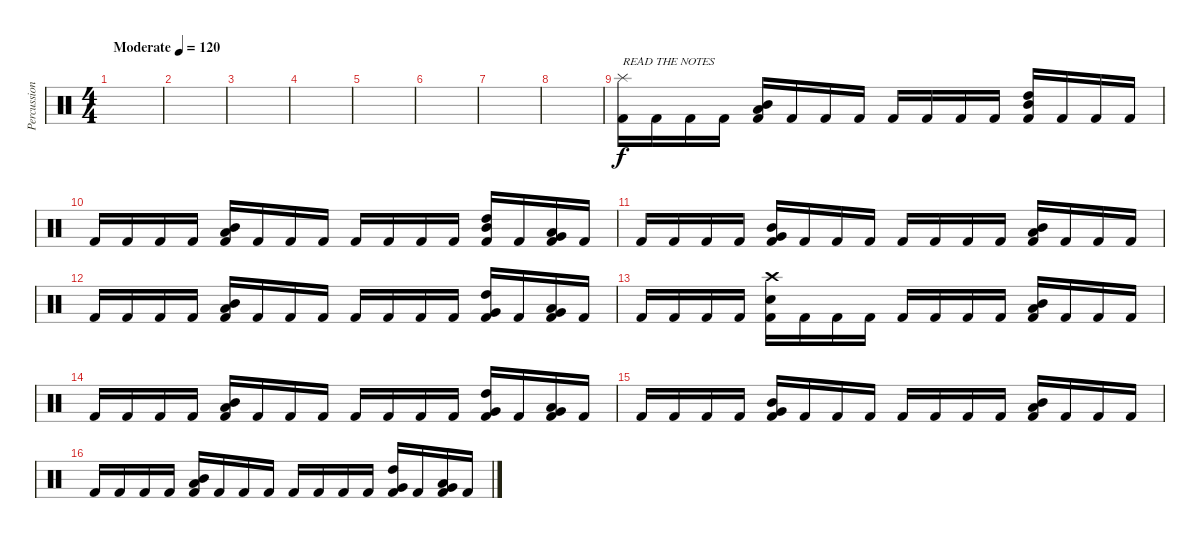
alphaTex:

\track ("Percussion" "Percussion") {instrument percussion}
\staff {score}
\articulation defaults
\ts (4 4)
\tempo (120 "Moderate")
\clef neutral
\ks c
|
|
|
|
|
|
|
|
("Kick (hit) 2" "Splash (hit)").16{txt "READ THE NOTES"} "Kick (hit) 2".16 "Kick (hit) 2".16 "Kick (hit) 2".16 ("Kick (hit) 2" "Low Tom (hit)" "Mid Tom (hit)").16 "Kick (hit) 2".16 "Kick (hit) 2".16 "Kick (hit) 2".16 "Kick (hit) 2".16 "Kick (hit) 2".16 "Kick (hit) 2".16 "Kick (hit) 2".16 ("Kick (hit) 2" "High Tom (hit)" "Mid Tom (hit)").16 "Kick (hit) 2".16 "Kick (hit) 2".16 "Kick (hit) 2".16 |
"Kick (hit) 2".16 "Kick (hit) 2".16 "Kick (hit) 2".16 "Kick (hit) 2".16 ("Kick (hit) 2" "Low Tom (hit)" "Mid Tom (hit)").16 "Kick (hit) 2".16 "Kick (hit) 2".16 "Kick (hit) 2".16 "Kick (hit) 2".16 "Kick (hit) 2".16 "Kick (hit) 2".16 "Kick (hit) 2".16 ("Kick (hit) 2" "High Tom (hit)" "Mid Tom (hit)").16 "Kick (hit) 2".16 ("Kick (hit) 2" "Very Low Tom (hit)" "Low Tom (hit)").16 "Kick (hit) 2".16 |
"Kick (hit) 2".16 "Kick (hit) 2".16 "Kick (hit) 2".16 "Kick (hit) 2".16 ("Kick (hit) 2" "Mid Tom (hit)" "Very Low Tom (hit)").16 "Kick (hit) 2".16 "Kick (hit) 2".16 "Kick (hit) 2".16 "Kick (hit) 2".16 "Kick (hit) 2".16 "Kick (hit) 2".16 "Kick (hit) 2".16 ("Kick (hit) 2" "Low Tom (hit)" "Mid Tom (hit)").16 "Kick (hit) 2".16 "Kick (hit) 2".16 "Kick (hit) 2".16 |
"Kick (hit) 2".16 "Kick (hit) 2".16 "Kick (hit) 2".16 "Kick (hit) 2".16 ("Kick (hit) 2" "Mid Tom (hit)" "Low Tom (hit)").16 "Kick (hit) 2".16 "Kick (hit) 2".16 "Kick (hit) 2".16 "Kick (hit) 2".16 "Kick (hit) 2".16 "Kick (hit) 2".16 "Kick (hit) 2".16 ("Kick (hit) 2" "Very Low Tom (hit)" "High Tom (hit)").16 "Kick (hit) 2".16 ("Kick (hit) 2" "Low Floor Tom (hit)" "Very Low Tom (hit)").16 "Kick (hit) 2".16 |
"Kick (hit) 2".16 "Kick (hit) 2".16 "Kick (hit) 2".16 "Kick (hit) 2".16 ("Kick (hit) 2" "Snare (hit) 2" "Crash high (hit)").16 "Kick (hit) 2".16 "Kick (hit) 2".16 "Kick (hit) 2".16 "Kick (hit) 2".16 "Kick (hit) 2".16 "Kick (hit) 2".16 "Kick (hit) 2".16 ("Kick (hit) 2" "Low Tom (hit)" "Mid Tom (hit)").16 "Kick (hit) 2".16 "Kick (hit) 2".16 "Kick (hit) 2".16 |
"Kick (hit) 2".16 "Kick (hit) 2".16 "Kick (hit) 2".16 "Kick (hit) 2".16 ("Kick (hit) 2" "Mid Tom (hit)" "Low Tom (hit)").16 "Kick (hit) 2".16 "Kick (hit) 2".16 "Kick (hit) 2".16 "Kick (hit) 2".16 "Kick (hit) 2".16 "Kick (hit) 2".16 "Kick (hit) 2".16 ("Kick (hit) 2" "Very Low Tom (hit)" "High Tom (hit)").16 "Kick (hit) 2".16 ("Kick (hit) 2" "Low Floor Tom (hit)" "Very Low Tom (hit)").16 "Kick (hit) 2".16 |
"Kick (hit) 2".16 "Kick (hit) 2".16 "Kick (hit) 2".16 "Kick (hit) 2".16 ("Kick (hit) 2" "Mid Tom (hit)" "Very Low Tom (hit)").16 "Kick (hit) 2".16 "Kick (hit) 2".16 "Kick (hit) 2".16 "Kick (hit) 2".16 "Kick (hit) 2".16 "Kick (hit) 2".16 "Kick (hit) 2".16 ("Kick (hit) 2" "Low Tom (hit)" "Mid Tom (hit)").16 "Kick (hit) 2".16 "Kick (hit) 2".16 "Kick (hit) 2".16 |
"Kick (hit) 2".16 "Kick (hit) 2".16 "Kick (hit) 2".16 "Kick (hit) 2".16 ("Kick (hit) 2" "Mid Tom (hit)" "Low Tom (hit)").16 "Kick (hit) 2".16 "Kick (hit) 2".16 "Kick (hit) 2".16 "Kick (hit) 2".16 "Kick (hit) 2".16 "Kick (hit) 2".16 "Kick (hit) 2".16 ("Kick (hit) 2" "Very Low Tom (hit)" "High Tom (hit)").16 "Kick (hit) 2".16 ("Kick (hit) 2" "Low Floor Tom (hit)" "Very Low Tom (hit)").16 "Kick (hit) 2".16
